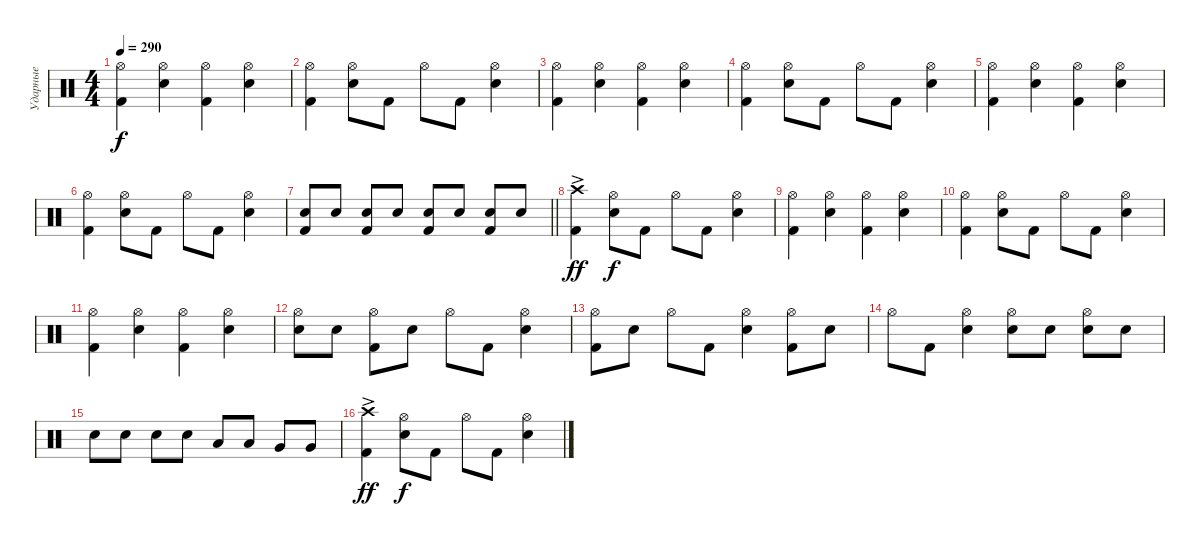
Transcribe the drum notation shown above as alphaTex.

\track ("Ударные" "Ударные") {instrument percussion}
\staff {score}
\articulation defaults
\ts (4 4)
\tempo 290
\clef neutral
\ks c
("Kick (hit) 2" "Hi-Hat (open)").4{dy f} ("Snare (hit) 2" "Hi-Hat (open)").4 ("Kick (hit) 2" "Hi-Hat (open)").4 ("Snare (hit) 2" "Hi-Hat (open)").4 |
("Kick (hit) 2" "Hi-Hat (open)").4 ("Snare (hit) 2" "Hi-Hat (open)").8 "Kick (hit) 2".8 "Hi-Hat (open)".8 "Kick (hit) 2".8 ("Snare (hit) 2" "Hi-Hat (open)").4 |
("Kick (hit) 2" "Hi-Hat (open)").4 ("Snare (hit) 2" "Hi-Hat (open)").4 ("Kick (hit) 2" "Hi-Hat (open)").4 ("Snare (hit) 2" "Hi-Hat (open)").4 |
("Kick (hit) 2" "Hi-Hat (open)").4 ("Snare (hit) 2" "Hi-Hat (open)").8 "Kick (hit) 2".8 "Hi-Hat (open)".8 "Kick (hit) 2".8 ("Snare (hit) 2" "Hi-Hat (open)").4 |
("Kick (hit) 2" "Hi-Hat (open)").4 ("Snare (hit) 2" "Hi-Hat (open)").4 ("Kick (hit) 2" "Hi-Hat (open)").4 ("Snare (hit) 2" "Hi-Hat (open)").4 |
("Kick (hit) 2" "Hi-Hat (open)").4 ("Snare (hit) 2" "Hi-Hat (open)").8 "Kick (hit) 2".8 "Hi-Hat (open)".8 "Kick (hit) 2".8 ("Snare (hit) 2" "Hi-Hat (open)").4 |
\barLineRight lightlight
("Kick (hit) 2" "Snare (hit) 2").8 "Snare (hit) 2".8 ("Kick (hit) 2" "Snare (hit) 2").8 "Snare (hit) 2".8 ("Kick (hit) 2" "Snare (hit) 2").8 "Snare (hit) 2".8 ("Kick (hit) 2" "Snare (hit) 2").8 "Snare (hit) 2".8 |
("Kick (hit) 2" "Crash high (hit)"{ac}).4{dy ff} ("Snare (hit) 2" "Hi-Hat (open)").8{dy f} "Kick (hit) 2".8 "Hi-Hat (open)".8 "Kick (hit) 2".8 ("Snare (hit) 2" "Hi-Hat (open)").4 |
("Kick (hit) 2" "Hi-Hat (open)").4 ("Snare (hit) 2" "Hi-Hat (open)").4 ("Kick (hit) 2" "Hi-Hat (open)").4 ("Snare (hit) 2" "Hi-Hat (open)").4 |
("Kick (hit) 2" "Hi-Hat (open)").4 ("Snare (hit) 2" "Hi-Hat (open)").8 "Kick (hit) 2".8 "Hi-Hat (open)".8 "Kick (hit) 2".8 ("Snare (hit) 2" "Hi-Hat (open)").4 |
("Kick (hit) 2" "Hi-Hat (open)").4 ("Snare (hit) 2" "Hi-Hat (open)").4 ("Kick (hit) 2" "Hi-Hat (open)").4 ("Snare (hit) 2" "Hi-Hat (open)").4 |
("Snare (hit) 2" "Hi-Hat (open)").8 "Snare (hit) 2".8 ("Kick (hit) 2" "Hi-Hat (open)").8 "Snare (hit) 2".8 "Hi-Hat (open)".8 "Kick (hit) 2".8 ("Snare (hit) 2" "Hi-Hat (open)").4 |
("Kick (hit) 2" "Hi-Hat (open)").8 "Snare (hit) 2".8 "Hi-Hat (open)".8 "Kick (hit) 2".8 ("Snare (hit) 2" "Hi-Hat (open)").4 ("Kick (hit) 2" "Hi-Hat (open)").8 "Snare (hit) 2".8 |
"Hi-Hat (open)".8 "Kick (hit) 2".8 ("Snare (hit) 2" "Hi-Hat (open)").4 ("Snare (hit) 2" "Hi-Hat (open)").8 "Snare (hit) 2".8 ("Snare (hit) 2" "Hi-Hat (open)").8 "Snare (hit) 2".8 |
"Snare (hit) 2".8 "Snare (hit) 2".8 "Snare (hit) 2".8 "Snare (hit) 2".8 "Low Tom (hit)".8 "Low Tom (hit)".8 "Very Low Tom (hit)".8 "Very Low Tom (hit)".8 |
("Kick (hit) 2" "Crash high (hit)"{ac}).4{dy ff} ("Snare (hit) 2" "Hi-Hat (open)").8{dy f} "Kick (hit) 2".8 "Hi-Hat (open)".8 "Kick (hit) 2".8 ("Snare (hit) 2" "Hi-Hat (open)").4
